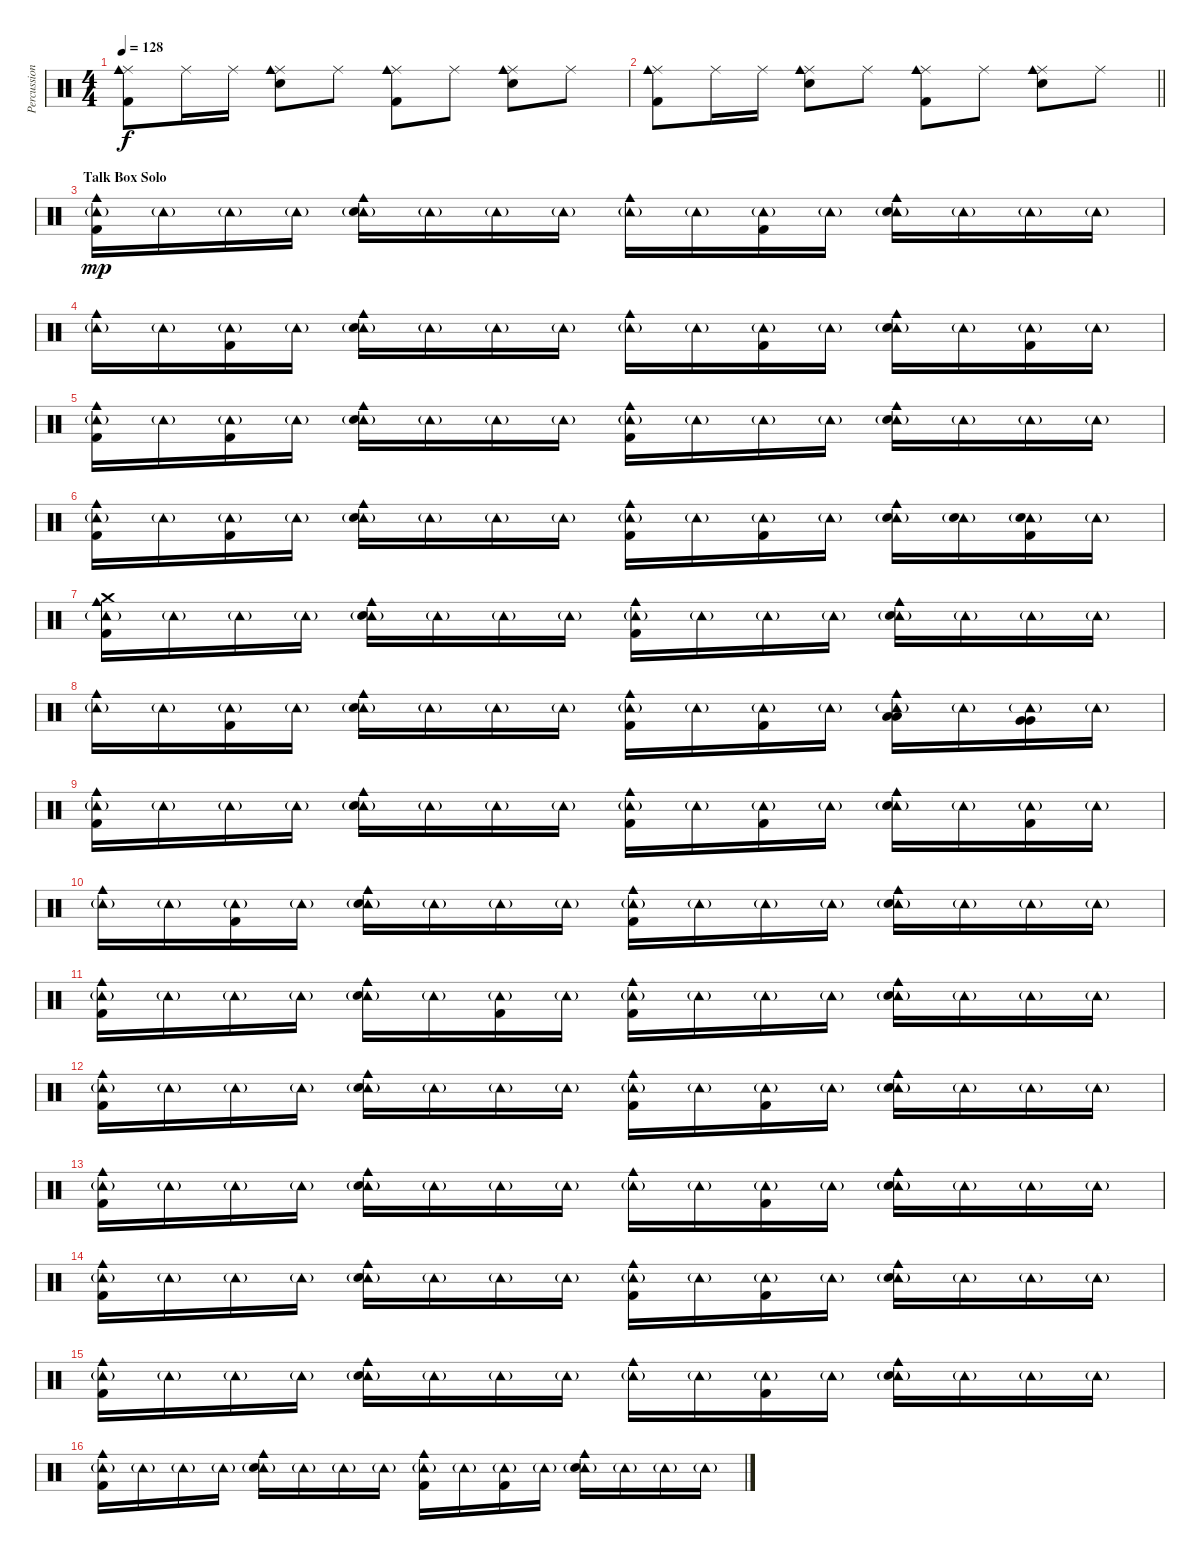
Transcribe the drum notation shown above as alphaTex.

\track ("Percussion" "Percussion") {instrument percussion}
\staff {score}
\articulation defaults
\ts (4 4)
\tempo 128
\clef neutral
\ks c
("Ride (middle)" "Cowbell medium (hit)" "Kick (hit) 2").8{dy f} "Ride (middle)".16 "Ride (middle)".16 ("Ride (middle)" "Cowbell medium (hit)" "Snare (hit) 2").8 "Ride (middle)".8 ("Ride (middle)" "Cowbell medium (hit)" "Kick (hit) 2").8 "Ride (middle)".8 ("Ride (middle)" "Cowbell medium (hit)" "Snare (hit) 2").8 "Ride (middle)".8 |
\barLineRight lightlight
("Ride (middle)" "Cowbell medium (hit)" "Kick (hit) 2").8 "Ride (middle)".16 "Ride (middle)".16 ("Ride (middle)" "Cowbell medium (hit)" "Snare (hit) 2").8 "Ride (middle)".8 ("Ride (middle)" "Cowbell medium (hit)" "Kick (hit) 2").8 "Ride (middle)".8 ("Ride (middle)" "Cowbell medium (hit)" "Snare (hit) 2").8 "Ride (middle)".8 |
\section ("" "Talk Box Solo")
("Tambourine (hit)"{g} "Cowbell medium (hit)" "Kick (hit) 2").16{dy mp} "Tambourine (hit)"{g}.16 "Tambourine (hit)"{g}.16 "Tambourine (hit)"{g}.16 ("Tambourine (hit)"{g} "Cowbell medium (hit)" "Snare (hit) 2").16 "Tambourine (hit)"{g}.16 "Tambourine (hit)"{g}.16 "Tambourine (hit)"{g}.16 ("Tambourine (hit)"{g} "Cowbell medium (hit)").16 "Tambourine (hit)"{g}.16 ("Tambourine (hit)"{g} "Kick (hit) 2").16 "Tambourine (hit)"{g}.16 ("Tambourine (hit)"{g} "Cowbell medium (hit)" "Snare (hit) 2").16 "Tambourine (hit)"{g}.16 "Tambourine (hit)"{g}.16 "Tambourine (hit)"{g}.16 |
("Tambourine (hit)"{g} "Cowbell medium (hit)").16 "Tambourine (hit)"{g}.16 ("Tambourine (hit)"{g} "Kick (hit) 2").16 "Tambourine (hit)"{g}.16 ("Tambourine (hit)"{g} "Cowbell medium (hit)" "Snare (hit) 2").16 "Tambourine (hit)"{g}.16 "Tambourine (hit)"{g}.16 "Tambourine (hit)"{g}.16 ("Tambourine (hit)"{g} "Cowbell medium (hit)").16 "Tambourine (hit)"{g}.16 ("Tambourine (hit)"{g} "Kick (hit) 2").16 "Tambourine (hit)"{g}.16 ("Tambourine (hit)"{g} "Cowbell medium (hit)" "Snare (hit) 2").16 "Tambourine (hit)"{g}.16 ("Tambourine (hit)"{g} "Kick (hit) 2").16 "Tambourine (hit)"{g}.16 |
("Tambourine (hit)"{g} "Cowbell medium (hit)" "Kick (hit) 2").16 "Tambourine (hit)"{g}.16 ("Tambourine (hit)"{g} "Kick (hit) 2").16 "Tambourine (hit)"{g}.16 ("Tambourine (hit)"{g} "Cowbell medium (hit)" "Snare (hit) 2").16 "Tambourine (hit)"{g}.16 "Tambourine (hit)"{g}.16 "Tambourine (hit)"{g}.16 ("Tambourine (hit)"{g} "Cowbell medium (hit)" "Kick (hit) 2").16 "Tambourine (hit)"{g}.16 "Tambourine (hit)"{g}.16 "Tambourine (hit)"{g}.16 ("Tambourine (hit)"{g} "Cowbell medium (hit)" "Snare (hit) 2").16 "Tambourine (hit)"{g}.16 "Tambourine (hit)"{g}.16 "Tambourine (hit)"{g}.16 |
("Tambourine (hit)"{g} "Cowbell medium (hit)" "Kick (hit) 2").16 "Tambourine (hit)"{g}.16 ("Tambourine (hit)"{g} "Kick (hit) 2").16 "Tambourine (hit)"{g}.16 ("Tambourine (hit)"{g} "Cowbell medium (hit)" "Snare (hit) 2").16 "Tambourine (hit)"{g}.16 "Tambourine (hit)"{g}.16 "Tambourine (hit)"{g}.16 ("Tambourine (hit)"{g} "Cowbell medium (hit)" "Kick (hit) 2").16 "Tambourine (hit)"{g}.16 ("Tambourine (hit)"{g} "Kick (hit) 2").16 "Tambourine (hit)"{g}.16 ("Tambourine (hit)"{g} "Cowbell medium (hit)" "Snare (hit) 2").16 ("Tambourine (hit)"{g} "Snare (hit) 2").16 ("Tambourine (hit)"{g} "Snare (hit) 2" "Kick (hit) 2").16 "Tambourine (hit)"{g}.16 |
("Tambourine (hit)"{g} "Cowbell medium (hit)" "Crash medium (hit)" "Kick (hit) 2").16 "Tambourine (hit)"{g}.16 "Tambourine (hit)"{g}.16 "Tambourine (hit)"{g}.16 ("Tambourine (hit)"{g} "Cowbell medium (hit)" "Snare (hit) 2").16 "Tambourine (hit)"{g}.16 "Tambourine (hit)"{g}.16 "Tambourine (hit)"{g}.16 ("Tambourine (hit)"{g} "Cowbell medium (hit)" "Kick (hit) 2").16 "Tambourine (hit)"{g}.16 "Tambourine (hit)"{g}.16 "Tambourine (hit)"{g}.16 ("Tambourine (hit)"{g} "Cowbell medium (hit)" "Snare (hit) 2").16 "Tambourine (hit)"{g}.16 "Tambourine (hit)"{g}.16 "Tambourine (hit)"{g}.16 |
("Tambourine (hit)"{g} "Cowbell medium (hit)").16 "Tambourine (hit)"{g}.16 ("Tambourine (hit)"{g} "Kick (hit) 2").16 "Tambourine (hit)"{g}.16 ("Tambourine (hit)"{g} "Cowbell medium (hit)" "Snare (hit) 2").16 "Tambourine (hit)"{g}.16 "Tambourine (hit)"{g}.16 "Tambourine (hit)"{g}.16 ("Tambourine (hit)"{g} "Cowbell medium (hit)" "Kick (hit) 2").16 "Tambourine (hit)"{g}.16 ("Tambourine (hit)"{g} "Kick (hit) 2").16 "Tambourine (hit)"{g}.16 ("Tambourine (hit)"{g} "Cowbell medium (hit)" "Low Tom (hit)" "Low Tom (hit)").16 "Tambourine (hit)"{g}.16 ("Tambourine (hit)"{g} "Very Low Tom (hit)" "Very Low Tom (hit)").16 "Tambourine (hit)"{g}.16 |
("Tambourine (hit)"{g} "Cowbell medium (hit)" "Kick (hit) 2").16 "Tambourine (hit)"{g}.16 "Tambourine (hit)"{g}.16 "Tambourine (hit)"{g}.16 ("Tambourine (hit)"{g} "Cowbell medium (hit)" "Snare (hit) 2").16 "Tambourine (hit)"{g}.16 "Tambourine (hit)"{g}.16 "Tambourine (hit)"{g}.16 ("Tambourine (hit)"{g} "Cowbell medium (hit)" "Kick (hit) 2").16 "Tambourine (hit)"{g}.16 ("Tambourine (hit)"{g} "Kick (hit) 2").16 "Tambourine (hit)"{g}.16 ("Tambourine (hit)"{g} "Cowbell medium (hit)" "Snare (hit) 2").16 "Tambourine (hit)"{g}.16 ("Tambourine (hit)"{g} "Kick (hit) 2").16 "Tambourine (hit)"{g}.16 |
("Tambourine (hit)"{g} "Cowbell medium (hit)").16 "Tambourine (hit)"{g}.16 ("Tambourine (hit)"{g} "Kick (hit) 2").16 "Tambourine (hit)"{g}.16 ("Tambourine (hit)"{g} "Cowbell medium (hit)" "Snare (hit) 2").16 "Tambourine (hit)"{g}.16 "Tambourine (hit)"{g}.16 "Tambourine (hit)"{g}.16 ("Tambourine (hit)"{g} "Cowbell medium (hit)" "Kick (hit) 2").16 "Tambourine (hit)"{g}.16 "Tambourine (hit)"{g}.16 "Tambourine (hit)"{g}.16 ("Tambourine (hit)"{g} "Cowbell medium (hit)" "Snare (hit) 2").16 "Tambourine (hit)"{g}.16 "Tambourine (hit)"{g}.16 "Tambourine (hit)"{g}.16 |
("Tambourine (hit)"{g} "Cowbell medium (hit)" "Kick (hit) 2").16 "Tambourine (hit)"{g}.16 "Tambourine (hit)"{g}.16 "Tambourine (hit)"{g}.16 ("Tambourine (hit)"{g} "Cowbell medium (hit)" "Snare (hit) 2").16 "Tambourine (hit)"{g}.16 ("Tambourine (hit)"{g} "Kick (hit) 2").16 "Tambourine (hit)"{g}.16 ("Tambourine (hit)"{g} "Cowbell medium (hit)" "Kick (hit) 2").16 "Tambourine (hit)"{g}.16 "Tambourine (hit)"{g}.16 "Tambourine (hit)"{g}.16 ("Tambourine (hit)"{g} "Cowbell medium (hit)" "Snare (hit) 2").16 "Tambourine (hit)"{g}.16 "Tambourine (hit)"{g}.16 "Tambourine (hit)"{g}.16 |
("Tambourine (hit)"{g} "Cowbell medium (hit)" "Kick (hit) 2").16 "Tambourine (hit)"{g}.16 "Tambourine (hit)"{g}.16 "Tambourine (hit)"{g}.16 ("Tambourine (hit)"{g} "Cowbell medium (hit)" "Snare (hit) 2").16 "Tambourine (hit)"{g}.16 "Tambourine (hit)"{g}.16 "Tambourine (hit)"{g}.16 ("Tambourine (hit)"{g} "Cowbell medium (hit)" "Kick (hit) 2").16 "Tambourine (hit)"{g}.16 ("Tambourine (hit)"{g} "Kick (hit) 2").16 "Tambourine (hit)"{g}.16 ("Tambourine (hit)"{g} "Cowbell medium (hit)" "Snare (hit) 2").16 "Tambourine (hit)"{g}.16 "Tambourine (hit)"{g}.16 "Tambourine (hit)"{g}.16 |
("Tambourine (hit)"{g} "Cowbell medium (hit)" "Kick (hit) 2").16 "Tambourine (hit)"{g}.16 "Tambourine (hit)"{g}.16 "Tambourine (hit)"{g}.16 ("Tambourine (hit)"{g} "Cowbell medium (hit)" "Snare (hit) 2").16 "Tambourine (hit)"{g}.16 "Tambourine (hit)"{g}.16 "Tambourine (hit)"{g}.16 ("Tambourine (hit)"{g} "Cowbell medium (hit)").16 "Tambourine (hit)"{g}.16 ("Tambourine (hit)"{g} "Kick (hit) 2").16 "Tambourine (hit)"{g}.16 ("Tambourine (hit)"{g} "Cowbell medium (hit)" "Snare (hit) 2").16 "Tambourine (hit)"{g}.16 "Tambourine (hit)"{g}.16 "Tambourine (hit)"{g}.16 |
("Tambourine (hit)"{g} "Cowbell medium (hit)" "Kick (hit) 2").16 "Tambourine (hit)"{g}.16 "Tambourine (hit)"{g}.16 "Tambourine (hit)"{g}.16 ("Tambourine (hit)"{g} "Cowbell medium (hit)" "Snare (hit) 2").16 "Tambourine (hit)"{g}.16 "Tambourine (hit)"{g}.16 "Tambourine (hit)"{g}.16 ("Tambourine (hit)"{g} "Cowbell medium (hit)" "Kick (hit) 2").16 "Tambourine (hit)"{g}.16 ("Tambourine (hit)"{g} "Kick (hit) 2").16 "Tambourine (hit)"{g}.16 ("Tambourine (hit)"{g} "Cowbell medium (hit)" "Snare (hit) 2").16 "Tambourine (hit)"{g}.16 "Tambourine (hit)"{g}.16 "Tambourine (hit)"{g}.16 |
("Tambourine (hit)"{g} "Cowbell medium (hit)" "Kick (hit) 2").16 "Tambourine (hit)"{g}.16 "Tambourine (hit)"{g}.16 "Tambourine (hit)"{g}.16 ("Tambourine (hit)"{g} "Cowbell medium (hit)" "Snare (hit) 2").16 "Tambourine (hit)"{g}.16 "Tambourine (hit)"{g}.16 "Tambourine (hit)"{g}.16 ("Tambourine (hit)"{g} "Cowbell medium (hit)").16 "Tambourine (hit)"{g}.16 ("Tambourine (hit)"{g} "Kick (hit) 2").16 "Tambourine (hit)"{g}.16 ("Tambourine (hit)"{g} "Cowbell medium (hit)" "Snare (hit) 2").16 "Tambourine (hit)"{g}.16 "Tambourine (hit)"{g}.16 "Tambourine (hit)"{g}.16 |
("Tambourine (hit)"{g} "Cowbell medium (hit)" "Kick (hit) 2").16 "Tambourine (hit)"{g}.16 "Tambourine (hit)"{g}.16 "Tambourine (hit)"{g}.16 ("Tambourine (hit)"{g} "Cowbell medium (hit)" "Snare (hit) 2").16 "Tambourine (hit)"{g}.16 "Tambourine (hit)"{g}.16 "Tambourine (hit)"{g}.16 ("Tambourine (hit)"{g} "Cowbell medium (hit)" "Kick (hit) 2").16 "Tambourine (hit)"{g}.16 ("Tambourine (hit)"{g} "Kick (hit) 2").16 "Tambourine (hit)"{g}.16 ("Tambourine (hit)"{g} "Cowbell medium (hit)" "Snare (hit) 2").16 "Tambourine (hit)"{g}.16 "Tambourine (hit)"{g}.16 "Tambourine (hit)"{g}.16
